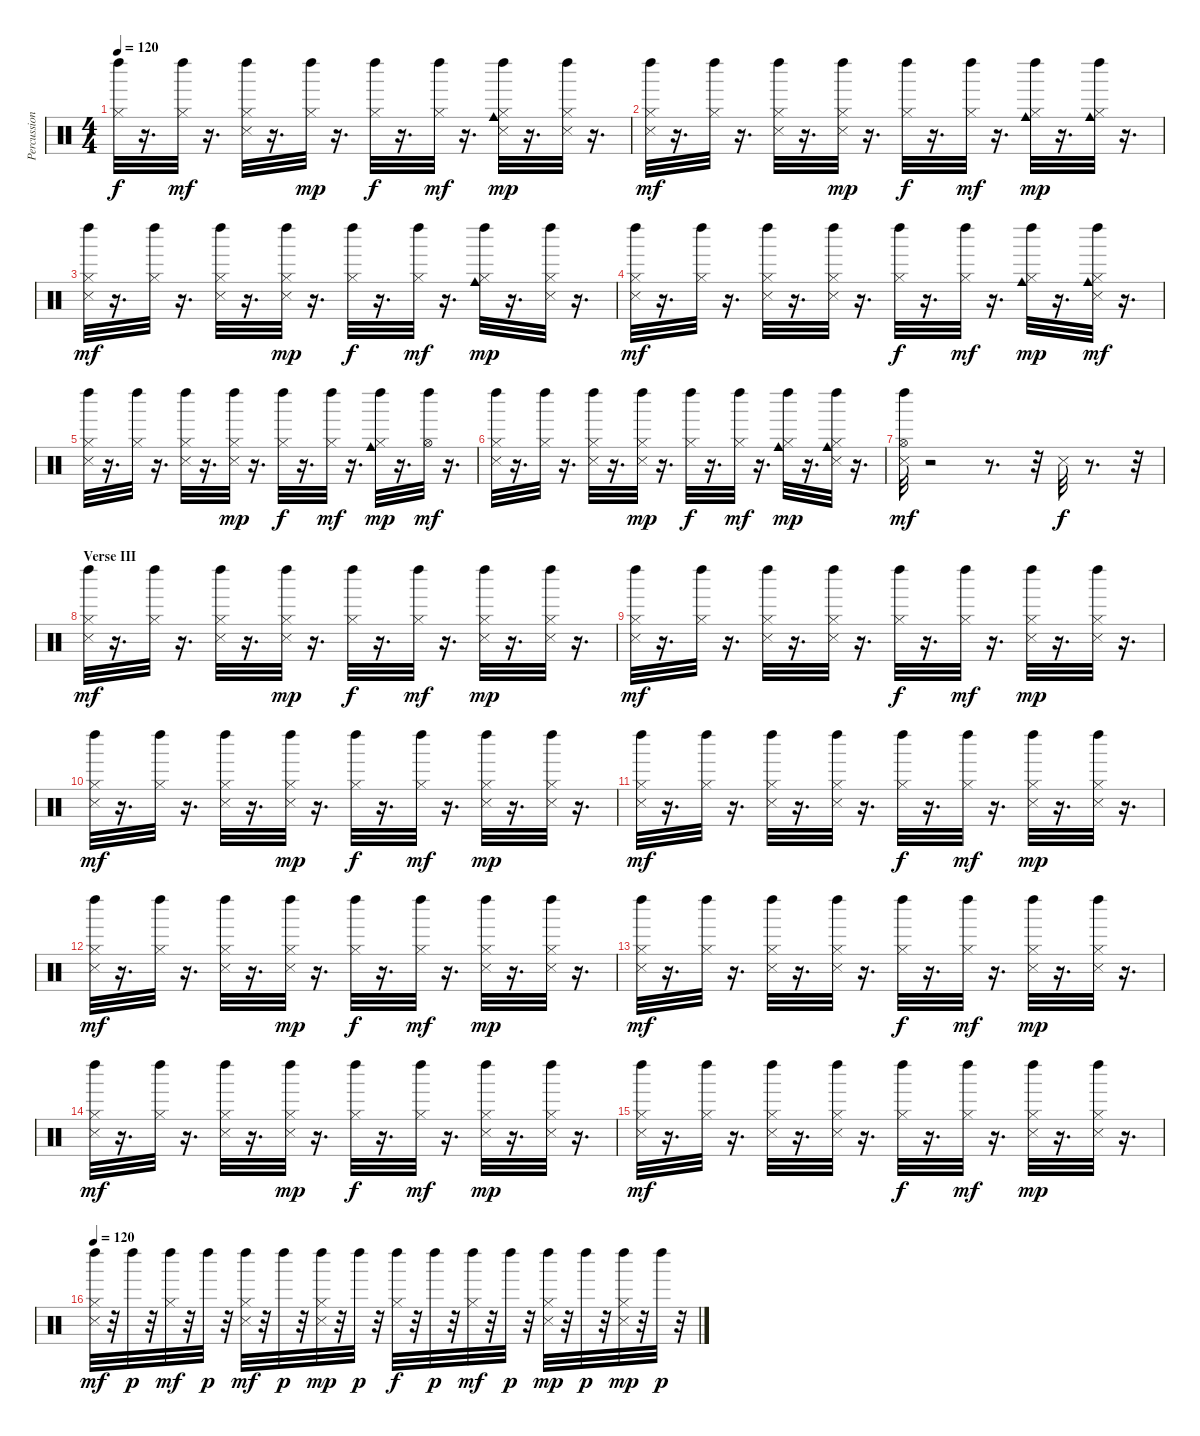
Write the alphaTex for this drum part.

\track ("Percussion" "Percussion") {instrument percussion}
\staff {score}
\articulation defaults
\ts (4 4)
\tempo 120
\clef neutral
\ks c
("Left Maraca (hit)" "Hi-Hat (closed)").32{dy f} r.16{d} ("Left Maraca (hit)" "Hi-Hat (closed)").32{dy mf} r.16{d} ("Snare (side stick) 3" "Left Maraca (hit)" "Hi-Hat (closed)").32 r.16{d} ("Left Maraca (hit)" "Hi-Hat (closed)").32{dy mp} r.16{d} ("Left Maraca (hit)" "Hi-Hat (closed)").32{dy f} r.16{d} ("Left Maraca (hit)" "Hi-Hat (closed)").32{dy mf} r.16{d} ("Metronome (hit)" "Cowbell medium (hit)" "Left Maraca (hit)" "Hi-Hat (closed)").32{dy mp} r.16{d} ("Metronome (hit)" "Left Maraca (hit)" "Hi-Hat (closed)").32 r.16{d} |
("Metronome (hit)" "Hi-Hat (closed)" "Left Maraca (hit)").32{dy mf} r.16{d} ("Hi-Hat (closed)" "Left Maraca (hit)").32 r.16{d} ("Hi-Hat (closed)" "Snare (side stick) 3" "Left Maraca (hit)").32 r.16{d} ("Metronome (hit)" "Hi-Hat (closed)" "Left Maraca (hit)").32{dy mp} r.16{d} ("Hi-Hat (closed)" "Left Maraca (hit)").32{dy f} r.16{d} ("Hi-Hat (closed)" "Left Maraca (hit)").32{dy mf} r.16{d} ("Hi-Hat (closed)" "Cowbell medium (hit)" "Left Maraca (hit)").32{dy mp} r.16{d} ("Hi-Hat (closed)" "Cowbell medium (hit)" "Left Maraca (hit)").32 r.16{d} |
("Metronome (hit)" "Hi-Hat (closed)" "Left Maraca (hit)").32{dy mf} r.16{d} ("Hi-Hat (closed)" "Left Maraca (hit)").32 r.16{d} ("Snare (side stick) 3" "Hi-Hat (closed)" "Left Maraca (hit)").32 r.16{d} ("Metronome (hit)" "Hi-Hat (closed)" "Left Maraca (hit)").32{dy mp} r.16{d} ("Hi-Hat (closed)" "Left Maraca (hit)").32{dy f} r.16{d} ("Hi-Hat (closed)" "Left Maraca (hit)").32{dy mf} r.16{d} ("Cowbell medium (hit)" "Hi-Hat (closed)" "Left Maraca (hit)").32{dy mp} r.16{d} ("Metronome (hit)" "Hi-Hat (closed)" "Left Maraca (hit)").32 r.16{d} |
("Hi-Hat (closed)" "Left Maraca (hit)" "Metronome (hit)").32{dy mf} r.16{d} ("Hi-Hat (closed)" "Left Maraca (hit)").32 r.16{d} ("Hi-Hat (closed)" "Snare (side stick) 3" "Left Maraca (hit)").32 r.16{d} ("Hi-Hat (closed)" "Left Maraca (hit)" "Metronome (hit)").32 r.16{d} ("Hi-Hat (closed)" "Left Maraca (hit)").32{dy f} r.16{d} ("Hi-Hat (closed)" "Left Maraca (hit)").32{dy mf} r.16{d} ("Hi-Hat (closed)" "Cowbell medium (hit)" "Left Maraca (hit)").32{dy mp} r.16{d} ("Hi-Hat (closed)" "Cowbell medium (hit)" "Left Maraca (hit)" "Metronome (hit)").32{dy mf} r.16{d} |
("Metronome (hit)" "Left Maraca (hit)" "Hi-Hat (closed)").32 r.16{d} ("Left Maraca (hit)" "Hi-Hat (closed)").32 r.16{d} ("Snare (side stick) 3" "Left Maraca (hit)" "Hi-Hat (closed)").32 r.16{d} ("Metronome (hit)" "Left Maraca (hit)" "Hi-Hat (closed)").32{dy mp} r.16{d} ("Left Maraca (hit)" "Hi-Hat (closed)").32{dy f} r.16{d} ("Left Maraca (hit)" "Hi-Hat (closed)").32{dy mf} r.16{d} ("Cowbell medium (hit)" "Left Maraca (hit)" "Hi-Hat (closed)").32{dy mp} r.16{d} ("Left Maraca (hit)" "Hi-Hat (open)").32{dy mf} r.16{d} |
("Metronome (hit)" "Left Maraca (hit)" "Hi-Hat (closed)").32 r.16{d} ("Left Maraca (hit)" "Hi-Hat (closed)").32 r.16{d} ("Left Maraca (hit)" "Hi-Hat (closed)" "Snare (side stick) 3").32 r.16{d} ("Metronome (hit)" "Left Maraca (hit)" "Hi-Hat (closed)").32{dy mp} r.16{d} ("Left Maraca (hit)" "Hi-Hat (closed)").32{dy f} r.16{d} ("Left Maraca (hit)" "Hi-Hat (closed)").32{dy mf} r.16{d} ("Left Maraca (hit)" "Hi-Hat (closed)" "Cowbell medium (hit)").32{dy mp} r.16{d} ("Metronome (hit)" "Left Maraca (hit)" "Hi-Hat (closed)" "Cowbell medium (hit)").32 r.16{d} |
("Metronome (hit)" "Left Maraca (hit)" "Hi-Hat (open)").32{dy mf} r.2 r.8{d} r.32 "Snare (side stick) 3".32{dy f} r.8{d} r.32 |
\section ("" "Verse III")
("Metronome (hit)" "Left Maraca (hit)" "Hi-Hat (closed)").32{dy mf} r.16{d} ("Left Maraca (hit)" "Hi-Hat (closed)").32 r.16{d} ("Left Maraca (hit)" "Hi-Hat (closed)" "Snare (side stick) 3").32 r.16{d} ("Metronome (hit)" "Left Maraca (hit)" "Hi-Hat (closed)").32{dy mp} r.16{d} ("Left Maraca (hit)" "Hi-Hat (closed)").32{dy f} r.16{d} ("Left Maraca (hit)" "Hi-Hat (closed)").32{dy mf} r.16{d} ("Snare (side stick) 3" "Left Maraca (hit)" "Hi-Hat (closed)").32{dy mp} r.16{d} ("Metronome (hit)" "Left Maraca (hit)" "Hi-Hat (closed)").32 r.16{d} |
("Hi-Hat (closed)" "Metronome (hit)" "Left Maraca (hit)").32{dy mf} r.16{d} ("Hi-Hat (closed)" "Left Maraca (hit)").32 r.16{d} ("Snare (side stick) 3" "Hi-Hat (closed)" "Left Maraca (hit)").32 r.16{d} ("Hi-Hat (closed)" "Left Maraca (hit)" "Metronome (hit)").32 r.16{d} ("Hi-Hat (closed)" "Left Maraca (hit)").32{dy f} r.16{d} ("Hi-Hat (closed)" "Left Maraca (hit)").32{dy mf} r.16{d} ("Hi-Hat (closed)" "Snare (side stick) 3" "Left Maraca (hit)").32{dy mp} r.16{d} ("Hi-Hat (closed)" "Metronome (hit)" "Left Maraca (hit)").32 r.16{d} |
("Metronome (hit)" "Left Maraca (hit)" "Hi-Hat (closed)").32{dy mf} r.16{d} ("Left Maraca (hit)" "Hi-Hat (closed)").32 r.16{d} ("Left Maraca (hit)" "Hi-Hat (closed)" "Snare (side stick) 3").32 r.16{d} ("Metronome (hit)" "Left Maraca (hit)" "Hi-Hat (closed)").32{dy mp} r.16{d} ("Left Maraca (hit)" "Hi-Hat (closed)").32{dy f} r.16{d} ("Left Maraca (hit)" "Hi-Hat (closed)").32{dy mf} r.16{d} ("Snare (side stick) 3" "Left Maraca (hit)" "Hi-Hat (closed)").32{dy mp} r.16{d} ("Metronome (hit)" "Left Maraca (hit)" "Hi-Hat (closed)").32 r.16{d} |
("Hi-Hat (closed)" "Metronome (hit)" "Left Maraca (hit)").32{dy mf} r.16{d} ("Hi-Hat (closed)" "Left Maraca (hit)").32 r.16{d} ("Snare (side stick) 3" "Hi-Hat (closed)" "Left Maraca (hit)").32 r.16{d} ("Hi-Hat (closed)" "Left Maraca (hit)" "Metronome (hit)").32 r.16{d} ("Hi-Hat (closed)" "Left Maraca (hit)").32{dy f} r.16{d} ("Hi-Hat (closed)" "Left Maraca (hit)").32{dy mf} r.16{d} ("Hi-Hat (closed)" "Snare (side stick) 3" "Left Maraca (hit)").32{dy mp} r.16{d} ("Hi-Hat (closed)" "Metronome (hit)" "Left Maraca (hit)").32 r.16{d} |
("Metronome (hit)" "Left Maraca (hit)" "Hi-Hat (closed)").32{dy mf} r.16{d} ("Left Maraca (hit)" "Hi-Hat (closed)").32 r.16{d} ("Left Maraca (hit)" "Hi-Hat (closed)" "Snare (side stick) 3").32 r.16{d} ("Metronome (hit)" "Left Maraca (hit)" "Hi-Hat (closed)").32{dy mp} r.16{d} ("Left Maraca (hit)" "Hi-Hat (closed)").32{dy f} r.16{d} ("Left Maraca (hit)" "Hi-Hat (closed)").32{dy mf} r.16{d} ("Snare (side stick) 3" "Left Maraca (hit)" "Hi-Hat (closed)").32{dy mp} r.16{d} ("Metronome (hit)" "Left Maraca (hit)" "Hi-Hat (closed)").32 r.16{d} |
("Hi-Hat (closed)" "Metronome (hit)" "Left Maraca (hit)").32{dy mf} r.16{d} ("Hi-Hat (closed)" "Left Maraca (hit)").32 r.16{d} ("Snare (side stick) 3" "Hi-Hat (closed)" "Left Maraca (hit)").32 r.16{d} ("Hi-Hat (closed)" "Left Maraca (hit)" "Metronome (hit)").32 r.16{d} ("Hi-Hat (closed)" "Left Maraca (hit)").32{dy f} r.16{d} ("Hi-Hat (closed)" "Left Maraca (hit)").32{dy mf} r.16{d} ("Hi-Hat (closed)" "Snare (side stick) 3" "Left Maraca (hit)").32{dy mp} r.16{d} ("Hi-Hat (closed)" "Metronome (hit)" "Left Maraca (hit)").32 r.16{d} |
("Metronome (hit)" "Left Maraca (hit)" "Hi-Hat (closed)").32{dy mf} r.16{d} ("Left Maraca (hit)" "Hi-Hat (closed)").32 r.16{d} ("Left Maraca (hit)" "Hi-Hat (closed)" "Snare (side stick) 3").32 r.16{d} ("Metronome (hit)" "Left Maraca (hit)" "Hi-Hat (closed)").32{dy mp} r.16{d} ("Left Maraca (hit)" "Hi-Hat (closed)").32{dy f} r.16{d} ("Left Maraca (hit)" "Hi-Hat (closed)").32{dy mf} r.16{d} ("Snare (side stick) 3" "Left Maraca (hit)" "Hi-Hat (closed)").32{dy mp} r.16{d} ("Metronome (hit)" "Left Maraca (hit)" "Hi-Hat (closed)").32 r.16{d} |
("Hi-Hat (closed)" "Metronome (hit)" "Left Maraca (hit)").32{dy mf} r.16{d} ("Hi-Hat (closed)" "Left Maraca (hit)").32 r.16{d} ("Snare (side stick) 3" "Hi-Hat (closed)" "Left Maraca (hit)").32 r.16{d} ("Hi-Hat (closed)" "Left Maraca (hit)" "Metronome (hit)").32 r.16{d} ("Hi-Hat (closed)" "Left Maraca (hit)").32{dy f} r.16{d} ("Hi-Hat (closed)" "Left Maraca (hit)").32{dy mf} r.16{d} ("Hi-Hat (closed)" "Snare (side stick) 3" "Left Maraca (hit)").32{dy mp} r.16{d} ("Hi-Hat (closed)" "Metronome (hit)" "Left Maraca (hit)").32 r.16{d} |
\tempo 120
("Hi-Hat (closed)" "Metronome (hit)" "Left Maraca (hit)").32{dy mf} r.32 "Left Maraca (hit)".32{dy p} r.32 ("Hi-Hat (closed)" "Left Maraca (hit)").32{dy mf} r.32 "Left Maraca (hit)".32{dy p} r.32 ("Hi-Hat (closed)" "Snare (side stick) 3" "Left Maraca (hit)").32{dy mf} r.32 "Left Maraca (hit)".32{dy p} r.32 ("Hi-Hat (closed)" "Metronome (hit)" "Left Maraca (hit)").32{dy mp} r.32 "Left Maraca (hit)".32{dy p} r.32 ("Hi-Hat (closed)" "Left Maraca (hit)").32{dy f} r.32 "Left Maraca (hit)".32{dy p} r.32 ("Hi-Hat (closed)" "Left Maraca (hit)").32{dy mf} r.32 "Left Maraca (hit)".32{dy p} r.32 ("Hi-Hat (closed)" "Snare (side stick) 3" "Left Maraca (hit)").32{dy mp} r.32 "Left Maraca (hit)".32{dy p} r.32 ("Hi-Hat (closed)" "Metronome (hit)" "Left Maraca (hit)").32{dy mp} r.32 "Left Maraca (hit)".32{dy p} r.32
